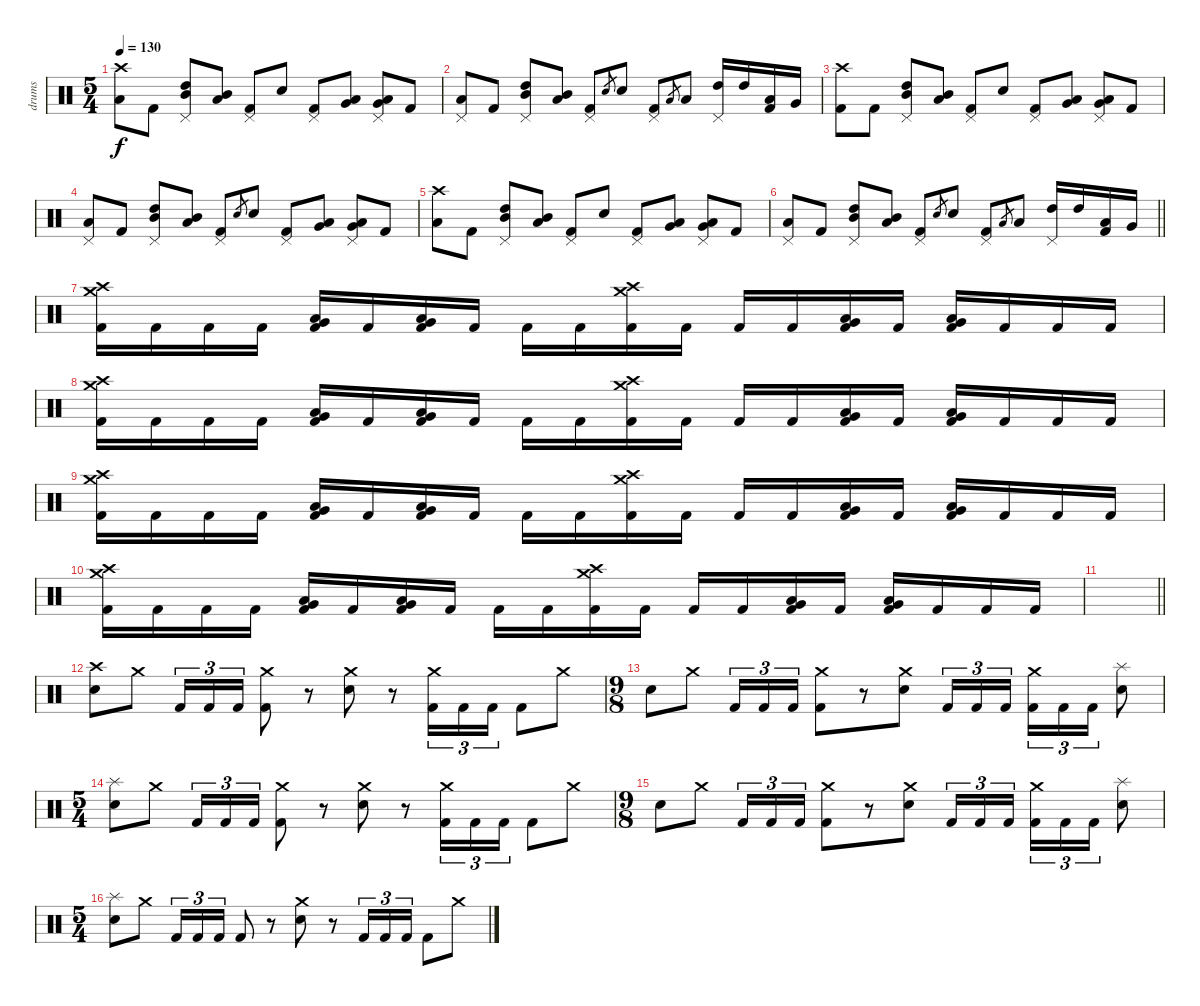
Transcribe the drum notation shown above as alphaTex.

\track ("drums" "drums") {instrument percussion}
\staff {score}
\articulation defaults
\ts (5 4)
\tempo 130
\clef neutral
\ks c
("Crash high (hit)" "Low Floor Tom (hit)").8{dy f} "Kick (hit) 2".8 ("Pedal Hi-Hat (hit)" "High Tom (hit)" "Mid Tom (hit)").8 ("Mid Tom (hit)" "Low Tom (hit)").8 ("Pedal Hi-Hat (hit)" "Kick (hit) 2").8 "Electric Snare (hit)".8 ("Pedal Hi-Hat (hit)" "Kick (hit) 2").8 ("Very Low Tom (hit)" "Low Floor Tom (hit)").8 ("Pedal Hi-Hat (hit)" "Very Low Tom (hit)" "Low Floor Tom (hit)").8 "Kick (hit) 2".8 |
("Pedal Hi-Hat (hit)" "Low Floor Tom (hit)").8 "Kick (hit) 2".8 ("Pedal Hi-Hat (hit)" "High Tom (hit)" "Mid Tom (hit)").8 ("Mid Tom (hit)" "Low Tom (hit)").8 ("Pedal Hi-Hat (hit)" "Kick (hit) 2").8 "Electric Snare (hit)".8{gr} "Electric Snare (hit)".8 ("Pedal Hi-Hat (hit)" "Kick (hit) 2").8 "Low Tom (hit)".8{gr} "Low Tom (hit)".8 ("Pedal Hi-Hat (hit)" "High Tom (hit)").16 "High Tom (hit)".16 ("Low Tom (hit)" "Kick (hit) 2").16 "Very Low Tom (hit)".16 |
("Crash high (hit)" "Kick (hit) 2").8 "Kick (hit) 2".8 ("Pedal Hi-Hat (hit)" "High Tom (hit)" "Mid Tom (hit)").8 ("Mid Tom (hit)" "Low Tom (hit)").8 ("Pedal Hi-Hat (hit)" "Kick (hit) 2").8 "Electric Snare (hit)".8 ("Pedal Hi-Hat (hit)" "Kick (hit) 2").8 ("Very Low Tom (hit)" "Low Floor Tom (hit)").8 ("Pedal Hi-Hat (hit)" "Very Low Tom (hit)" "Low Floor Tom (hit)").8 "Kick (hit) 2".8 |
("Pedal Hi-Hat (hit)" "Low Floor Tom (hit)").8 "Kick (hit) 2".8 ("Pedal Hi-Hat (hit)" "High Tom (hit)" "Mid Tom (hit)").8 ("Mid Tom (hit)" "Low Tom (hit)").8 ("Pedal Hi-Hat (hit)" "Kick (hit) 2").8 "Electric Snare (hit)".8{gr} "Electric Snare (hit)".8 ("Pedal Hi-Hat (hit)" "Kick (hit) 2").8 ("Very Low Tom (hit)" "Low Floor Tom (hit)").8 ("Pedal Hi-Hat (hit)" "Very Low Tom (hit)" "Low Floor Tom (hit)").8 "Kick (hit) 2".8 |
("Crash high (hit)" "Low Floor Tom (hit)").8 "Kick (hit) 2".8 ("Pedal Hi-Hat (hit)" "High Tom (hit)" "Mid Tom (hit)").8 ("Mid Tom (hit)" "Low Tom (hit)").8 ("Pedal Hi-Hat (hit)" "Kick (hit) 2").8 "Electric Snare (hit)".8 ("Pedal Hi-Hat (hit)" "Kick (hit) 2").8 ("Very Low Tom (hit)" "Low Floor Tom (hit)").8 ("Pedal Hi-Hat (hit)" "Very Low Tom (hit)" "Low Floor Tom (hit)").8 "Kick (hit) 2".8 |
\barLineRight lightlight
("Pedal Hi-Hat (hit)" "Low Floor Tom (hit)").8 "Kick (hit) 2".8 ("Pedal Hi-Hat (hit)" "High Tom (hit)" "Mid Tom (hit)").8 ("Mid Tom (hit)" "Low Tom (hit)").8 ("Pedal Hi-Hat (hit)" "Kick (hit) 2").8 "Electric Snare (hit)".8{gr} "Electric Snare (hit)".8 ("Pedal Hi-Hat (hit)" "Kick (hit) 2").8 "Low Tom (hit)".8{gr} "Low Tom (hit)".8 ("Pedal Hi-Hat (hit)" "High Tom (hit)").16 "High Tom (hit)".16 ("Low Tom (hit)" "Kick (hit) 2").16 "Very Low Tom (hit)".16 |
\section ("" "")
("Crash high (hit)" "Crash medium (hit)" "Kick (hit) 2").16 "Kick (hit) 2".16 "Kick (hit) 2".16 "Kick (hit) 2".16 ("Very Low Tom (hit)" "Low Floor Tom (hit)" "Kick (hit) 2").16 "Kick (hit) 2".16 ("Very Low Tom (hit)" "Low Floor Tom (hit)" "Kick (hit) 2").16 "Kick (hit) 2".16 "Kick (hit) 2".16 "Kick (hit) 2".16 ("Crash high (hit)" "Crash medium (hit)" "Kick (hit) 2").16 "Kick (hit) 2".16 "Kick (hit) 2".16 "Kick (hit) 2".16 ("Very Low Tom (hit)" "Low Floor Tom (hit)" "Kick (hit) 2").16 "Kick (hit) 2".16 ("Very Low Tom (hit)" "Low Floor Tom (hit)" "Kick (hit) 2").16 "Kick (hit) 2".16 "Kick (hit) 2".16 "Kick (hit) 2".16 |
("Crash high (hit)" "Crash medium (hit)" "Kick (hit) 2").16 "Kick (hit) 2".16 "Kick (hit) 2".16 "Kick (hit) 2".16 ("Very Low Tom (hit)" "Low Floor Tom (hit)" "Kick (hit) 2").16 "Kick (hit) 2".16 ("Very Low Tom (hit)" "Low Floor Tom (hit)" "Kick (hit) 2").16 "Kick (hit) 2".16 "Kick (hit) 2".16 "Kick (hit) 2".16 ("Crash high (hit)" "Crash medium (hit)" "Kick (hit) 2").16 "Kick (hit) 2".16 "Kick (hit) 2".16 "Kick (hit) 2".16 ("Very Low Tom (hit)" "Low Floor Tom (hit)" "Kick (hit) 2").16 "Kick (hit) 2".16 ("Very Low Tom (hit)" "Low Floor Tom (hit)" "Kick (hit) 2").16 "Kick (hit) 2".16 "Kick (hit) 2".16 "Kick (hit) 2".16 |
("Crash high (hit)" "Crash medium (hit)" "Kick (hit) 2").16 "Kick (hit) 2".16 "Kick (hit) 2".16 "Kick (hit) 2".16 ("Very Low Tom (hit)" "Low Floor Tom (hit)" "Kick (hit) 2").16 "Kick (hit) 2".16 ("Very Low Tom (hit)" "Low Floor Tom (hit)" "Kick (hit) 2").16 "Kick (hit) 2".16 "Kick (hit) 2".16 "Kick (hit) 2".16 ("Crash high (hit)" "Crash medium (hit)" "Kick (hit) 2").16 "Kick (hit) 2".16 "Kick (hit) 2".16 "Kick (hit) 2".16 ("Very Low Tom (hit)" "Low Floor Tom (hit)" "Kick (hit) 2").16 "Kick (hit) 2".16 ("Very Low Tom (hit)" "Low Floor Tom (hit)" "Kick (hit) 2").16 "Kick (hit) 2".16 "Kick (hit) 2".16 "Kick (hit) 2".16 |
("Crash high (hit)" "Crash medium (hit)" "Kick (hit) 2").16 "Kick (hit) 2".16 "Kick (hit) 2".16 "Kick (hit) 2".16 ("Very Low Tom (hit)" "Low Floor Tom (hit)" "Kick (hit) 2").16 "Kick (hit) 2".16 ("Very Low Tom (hit)" "Low Floor Tom (hit)" "Kick (hit) 2").16 "Kick (hit) 2".16 "Kick (hit) 2".16 "Kick (hit) 2".16 ("Crash high (hit)" "Crash medium (hit)" "Kick (hit) 2").16 "Kick (hit) 2".16 "Kick (hit) 2".16 "Kick (hit) 2".16 ("Very Low Tom (hit)" "Low Floor Tom (hit)" "Kick (hit) 2").16 "Kick (hit) 2".16 ("Very Low Tom (hit)" "Low Floor Tom (hit)" "Kick (hit) 2").16 "Kick (hit) 2".16 "Kick (hit) 2".16 "Kick (hit) 2".16 |
\barLineRight lightlight
|
\section ("" "")
("Crash high (hit)" "Electric Snare (hit)").8 "Crash medium (hit)".8 "Kick (hit) 2".16{tu (3 2)} "Kick (hit) 2".16{tu (3 2)} "Kick (hit) 2".16{tu (3 2)} ("Crash medium (hit)" "Kick (hit) 2").8 r.8 ("Crash medium (hit)" "Electric Snare (hit)").8 r.8 ("Crash medium (hit)" "Kick (hit) 2").16{tu (3 2)} "Kick (hit) 2".16{tu (3 2)} "Kick (hit) 2".16{tu (3 2)} "Kick (hit) 2".8 "Crash medium (hit)".8 |
\ts (9 8)
"Electric Snare (hit)".8 "Crash medium (hit)".8 "Kick (hit) 2".16{tu (3 2)} "Kick (hit) 2".16{tu (3 2)} "Kick (hit) 2".16{tu (3 2)} ("Crash medium (hit)" "Kick (hit) 2").8 r.8 ("Crash medium (hit)" "Electric Snare (hit)").8 "Kick (hit) 2".16{tu (3 2)} "Kick (hit) 2".16{tu (3 2)} "Kick (hit) 2".16{tu (3 2)} ("Crash medium (hit)" "Kick (hit) 2").16{tu (3 2)} "Kick (hit) 2".16{tu (3 2)} "Kick (hit) 2".16{tu (3 2)} ("Splash (hit)" "Electric Snare (hit)").8 |
\ts (5 4)
("Splash (hit)" "Electric Snare (hit)").8 "Crash medium (hit)".8 "Kick (hit) 2".16{tu (3 2)} "Kick (hit) 2".16{tu (3 2)} "Kick (hit) 2".16{tu (3 2)} ("Crash medium (hit)" "Kick (hit) 2").8 r.8 ("Crash medium (hit)" "Electric Snare (hit)").8 r.8 ("Crash medium (hit)" "Kick (hit) 2").16{tu (3 2)} "Kick (hit) 2".16{tu (3 2)} "Kick (hit) 2".16{tu (3 2)} "Kick (hit) 2".8 "Crash medium (hit)".8 |
\ts (9 8)
"Electric Snare (hit)".8 "Crash medium (hit)".8 "Kick (hit) 2".16{tu (3 2)} "Kick (hit) 2".16{tu (3 2)} "Kick (hit) 2".16{tu (3 2)} ("Crash medium (hit)" "Kick (hit) 2").8 r.8 ("Crash medium (hit)" "Electric Snare (hit)").8 "Kick (hit) 2".16{tu (3 2)} "Kick (hit) 2".16{tu (3 2)} "Kick (hit) 2".16{tu (3 2)} ("Crash medium (hit)" "Kick (hit) 2").16{tu (3 2)} "Kick (hit) 2".16{tu (3 2)} "Kick (hit) 2".16{tu (3 2)} ("Splash (hit)" "Electric Snare (hit)").8 |
\ts (5 4)
("Splash (hit)" "Electric Snare (hit)").8 "Crash medium (hit)".8 "Kick (hit) 2".16{tu (3 2)} "Kick (hit) 2".16{tu (3 2)} "Kick (hit) 2".16{tu (3 2)} "Kick (hit) 2".8 r.8 ("Crash medium (hit)" "Electric Snare (hit)").8 r.8 "Kick (hit) 2".16{tu (3 2)} "Kick (hit) 2".16{tu (3 2)} "Kick (hit) 2".16{tu (3 2)} "Kick (hit) 2".8 "Crash medium (hit)".8
